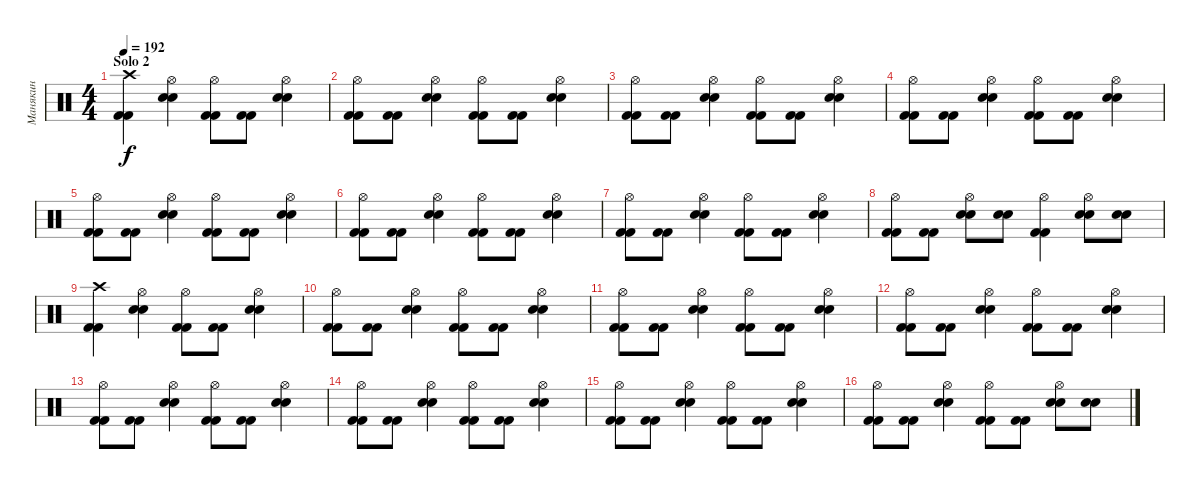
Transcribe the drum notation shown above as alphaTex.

\track ("Манякин" "Манякин") {instrument percussion}
\staff {score}
\articulation defaults
\ts (4 4)
\section ("" "Solo 2")
\tempo 192
\clef neutral
\ks c
("Crash high (hit)" "Kick (hit) 2" "Kick (hit) 2").4{dy f} ("Hi-Hat (open)" "Electric Snare (hit)" "Electric Snare (hit)").4 ("Hi-Hat (open)" "Kick (hit) 2" "Kick (hit) 2").8 ("Kick (hit) 2" "Kick (hit) 2").8 ("Hi-Hat (open)" "Electric Snare (hit)" "Electric Snare (hit)").4 |
("Hi-Hat (open)" "Kick (hit) 2" "Kick (hit) 2").8 ("Kick (hit) 2" "Kick (hit) 2").8 ("Hi-Hat (open)" "Electric Snare (hit)" "Electric Snare (hit)").4 ("Hi-Hat (open)" "Kick (hit) 2" "Kick (hit) 2").8 ("Kick (hit) 2" "Kick (hit) 2").8 ("Hi-Hat (open)" "Electric Snare (hit)" "Electric Snare (hit)").4 |
("Hi-Hat (open)" "Kick (hit) 2" "Kick (hit) 2").8 ("Kick (hit) 2" "Kick (hit) 2").8 ("Hi-Hat (open)" "Electric Snare (hit)" "Electric Snare (hit)").4 ("Hi-Hat (open)" "Kick (hit) 2" "Kick (hit) 2").8 ("Kick (hit) 2" "Kick (hit) 2").8 ("Hi-Hat (open)" "Electric Snare (hit)" "Electric Snare (hit)").4 |
("Hi-Hat (open)" "Kick (hit) 2" "Kick (hit) 2").8 ("Kick (hit) 2" "Kick (hit) 2").8 ("Hi-Hat (open)" "Electric Snare (hit)" "Electric Snare (hit)").4 ("Hi-Hat (open)" "Kick (hit) 2" "Kick (hit) 2").8 ("Kick (hit) 2" "Kick (hit) 2").8 ("Hi-Hat (open)" "Electric Snare (hit)" "Electric Snare (hit)").4 |
("Hi-Hat (open)" "Kick (hit) 2" "Kick (hit) 2").8 ("Kick (hit) 2" "Kick (hit) 2").8 ("Hi-Hat (open)" "Electric Snare (hit)" "Electric Snare (hit)").4 ("Hi-Hat (open)" "Kick (hit) 2" "Kick (hit) 2").8 ("Kick (hit) 2" "Kick (hit) 2").8 ("Hi-Hat (open)" "Electric Snare (hit)" "Electric Snare (hit)").4 |
("Hi-Hat (open)" "Kick (hit) 2" "Kick (hit) 2").8 ("Kick (hit) 2" "Kick (hit) 2").8 ("Hi-Hat (open)" "Electric Snare (hit)" "Electric Snare (hit)").4 ("Hi-Hat (open)" "Kick (hit) 2" "Kick (hit) 2").8 ("Kick (hit) 2" "Kick (hit) 2").8 ("Hi-Hat (open)" "Electric Snare (hit)" "Electric Snare (hit)").4 |
("Hi-Hat (open)" "Kick (hit) 2" "Kick (hit) 2").8 ("Kick (hit) 2" "Kick (hit) 2").8 ("Hi-Hat (open)" "Electric Snare (hit)" "Electric Snare (hit)").4 ("Hi-Hat (open)" "Kick (hit) 2" "Kick (hit) 2").8 ("Kick (hit) 2" "Kick (hit) 2").8 ("Hi-Hat (open)" "Electric Snare (hit)" "Electric Snare (hit)").4 |
("Hi-Hat (open)" "Kick (hit) 2" "Kick (hit) 2").8 ("Kick (hit) 2" "Kick (hit) 2").8 ("Hi-Hat (open)" "Electric Snare (hit)" "Electric Snare (hit)").8 ("Electric Snare (hit)" "Electric Snare (hit)").8 ("Hi-Hat (open)" "Kick (hit) 2" "Kick (hit) 2").4 ("Hi-Hat (open)" "Electric Snare (hit)" "Electric Snare (hit)").8 ("Electric Snare (hit)" "Electric Snare (hit)").8 |
("Crash high (hit)" "Kick (hit) 2" "Kick (hit) 2").4 ("Hi-Hat (open)" "Electric Snare (hit)" "Electric Snare (hit)").4 ("Hi-Hat (open)" "Kick (hit) 2" "Kick (hit) 2").8 ("Kick (hit) 2" "Kick (hit) 2").8 ("Hi-Hat (open)" "Electric Snare (hit)" "Electric Snare (hit)").4 |
("Hi-Hat (open)" "Kick (hit) 2" "Kick (hit) 2").8 ("Kick (hit) 2" "Kick (hit) 2").8 ("Hi-Hat (open)" "Electric Snare (hit)" "Electric Snare (hit)").4 ("Hi-Hat (open)" "Kick (hit) 2" "Kick (hit) 2").8 ("Kick (hit) 2" "Kick (hit) 2").8 ("Hi-Hat (open)" "Electric Snare (hit)" "Electric Snare (hit)").4 |
("Hi-Hat (open)" "Kick (hit) 2" "Kick (hit) 2").8 ("Kick (hit) 2" "Kick (hit) 2").8 ("Hi-Hat (open)" "Electric Snare (hit)" "Electric Snare (hit)").4 ("Hi-Hat (open)" "Kick (hit) 2" "Kick (hit) 2").8 ("Kick (hit) 2" "Kick (hit) 2").8 ("Hi-Hat (open)" "Electric Snare (hit)" "Electric Snare (hit)").4 |
("Hi-Hat (open)" "Kick (hit) 2" "Kick (hit) 2").8 ("Kick (hit) 2" "Kick (hit) 2").8 ("Hi-Hat (open)" "Electric Snare (hit)" "Electric Snare (hit)").4 ("Hi-Hat (open)" "Kick (hit) 2" "Kick (hit) 2").8 ("Kick (hit) 2" "Kick (hit) 2").8 ("Hi-Hat (open)" "Electric Snare (hit)" "Electric Snare (hit)").4 |
("Hi-Hat (open)" "Kick (hit) 2" "Kick (hit) 2").8 ("Kick (hit) 2" "Kick (hit) 2").8 ("Hi-Hat (open)" "Electric Snare (hit)" "Electric Snare (hit)").4 ("Hi-Hat (open)" "Kick (hit) 2" "Kick (hit) 2").8 ("Kick (hit) 2" "Kick (hit) 2").8 ("Hi-Hat (open)" "Electric Snare (hit)" "Electric Snare (hit)").4 |
("Hi-Hat (open)" "Kick (hit) 2" "Kick (hit) 2").8 ("Kick (hit) 2" "Kick (hit) 2").8 ("Hi-Hat (open)" "Electric Snare (hit)" "Electric Snare (hit)").4 ("Hi-Hat (open)" "Kick (hit) 2" "Kick (hit) 2").8 ("Kick (hit) 2" "Kick (hit) 2").8 ("Hi-Hat (open)" "Electric Snare (hit)" "Electric Snare (hit)").4 |
("Hi-Hat (open)" "Kick (hit) 2" "Kick (hit) 2").8 ("Kick (hit) 2" "Kick (hit) 2").8 ("Hi-Hat (open)" "Electric Snare (hit)" "Electric Snare (hit)").4 ("Hi-Hat (open)" "Kick (hit) 2" "Kick (hit) 2").8 ("Kick (hit) 2" "Kick (hit) 2").8 ("Hi-Hat (open)" "Electric Snare (hit)" "Electric Snare (hit)").4 |
("Hi-Hat (open)" "Kick (hit) 2" "Kick (hit) 2").8 ("Kick (hit) 2" "Kick (hit) 2").8 ("Hi-Hat (open)" "Electric Snare (hit)" "Electric Snare (hit)").4 ("Hi-Hat (open)" "Kick (hit) 2" "Kick (hit) 2").8 ("Kick (hit) 2" "Kick (hit) 2").8 ("Hi-Hat (open)" "Electric Snare (hit)" "Electric Snare (hit)").8 ("Electric Snare (hit)" "Electric Snare (hit)").8
